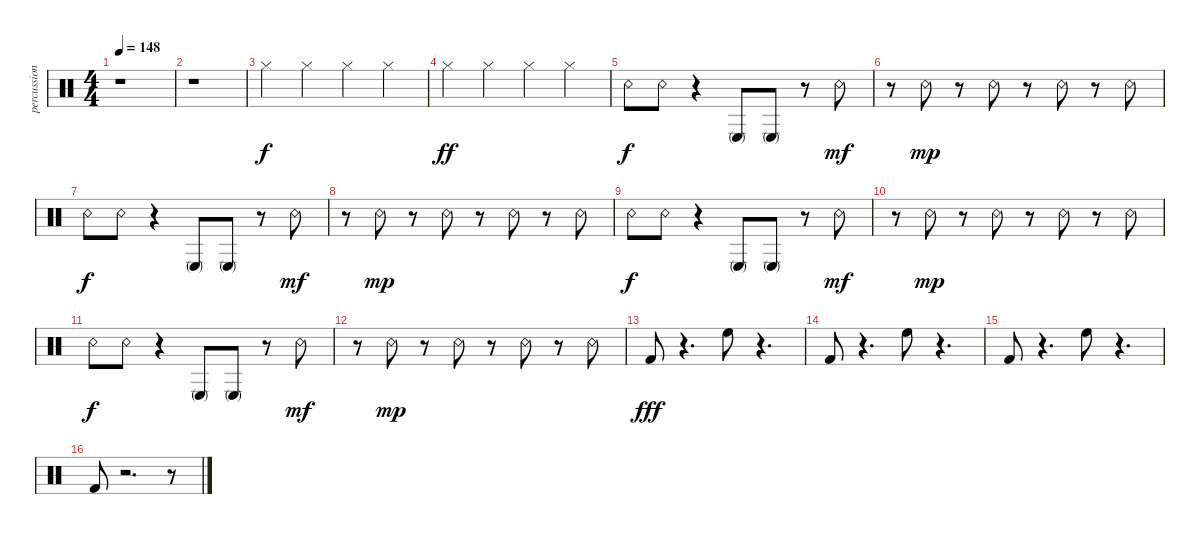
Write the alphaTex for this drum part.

\track ("percussion fx 2" "percussion") {instrument percussion}
\staff {score}
\articulation defaults
\ts (4 4)
\tempo 148
\clef neutral
\ks c
r.1{dy mf} |
r.1 |
"Cowbell high (tip)".4{dy f} "Cowbell high (tip)".4 "Cowbell high (tip)".4 "Cowbell high (tip)".4 |
"Cowbell high (tip)".4{dy ff} "Cowbell high (tip)".4 "Cowbell high (tip)".4 "Cowbell high (tip)".4 |
"Snare (rim shot)".8{dy f} "Snare (rim shot)".8 r.4 "Conga low (mute)".8 "Conga low (mute)".8 r.8 "Snare (rim shot)".8{dy mf} |
r.8 "Snare (rim shot)".8{dy mp} r.8 "Snare (rim shot)".8 r.8 "Snare (rim shot)".8 r.8 "Snare (rim shot)".8 |
"Snare (rim shot)".8{dy f} "Snare (rim shot)".8 r.4 "Conga low (mute)".8 "Conga low (mute)".8 r.8 "Snare (rim shot)".8{dy mf} |
r.8 "Snare (rim shot)".8{dy mp} r.8 "Snare (rim shot)".8 r.8 "Snare (rim shot)".8 r.8 "Snare (rim shot)".8 |
"Snare (rim shot)".8{dy f} "Snare (rim shot)".8 r.4 "Conga low (mute)".8 "Conga low (mute)".8 r.8 "Snare (rim shot)".8{dy mf} |
r.8 "Snare (rim shot)".8{dy mp} r.8 "Snare (rim shot)".8 r.8 "Snare (rim shot)".8 r.8 "Snare (rim shot)".8 |
"Snare (rim shot)".8{dy f} "Snare (rim shot)".8 r.4 "Conga low (mute)".8 "Conga low (mute)".8 r.8 "Snare (rim shot)".8{dy mf} |
r.8 "Snare (rim shot)".8{dy mp} r.8 "Snare (rim shot)".8 r.8 "Snare (rim shot)".8 r.8 "Snare (rim shot)".8 |
"Kick (hit) 2".8{dy fff} r.4{d} "High Floor Tom (hit)".8 r.4{d} |
"Kick (hit) 2".8 r.4{d} "High Floor Tom (hit)".8 r.4{d} |
"Kick (hit) 2".8 r.4{d} "High Floor Tom (hit)".8 r.4{d} |
"Kick (hit) 2".8 r.2{d} r.8
